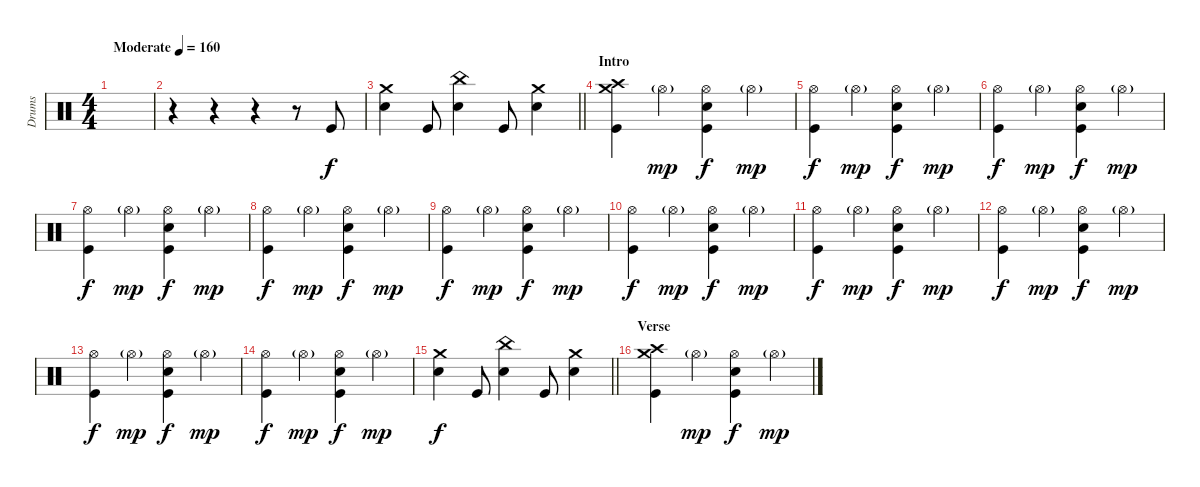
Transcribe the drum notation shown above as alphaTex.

\track ("Drums" "Drums") {instrument percussion}
\staff {score}
\articulation defaults
\ts (4 4)
\tempo (160 "Moderate")
\clef neutral
\ks c
|
r.4 r.4 r.4 r.8 "Kick (hit)".8 |
\barLineRight lightlight
("Electric Snare (hit)" "Crash medium (hit)").4 "Kick (hit)".8 ("Electric Snare (hit)" "China (hit)").4 "Kick (hit)".8 ("Electric Snare (hit)" "Crash medium (hit)").4 |
\section ("" "Intro")
("Kick (hit)" "Crash high (hit)" "Crash medium (hit)").4 "Hi-Hat (open)"{g}.4{dy mp} ("Kick (hit)" "Electric Snare (hit)" "Hi-Hat (open)").4{dy f} "Hi-Hat (open)"{g}.4{dy mp} |
("Kick (hit)" "Hi-Hat (open)").4{dy f} "Hi-Hat (open)"{g}.4{dy mp} ("Kick (hit)" "Electric Snare (hit)" "Hi-Hat (open)").4{dy f} "Hi-Hat (open)"{g}.4{dy mp} |
("Kick (hit)" "Hi-Hat (open)").4{dy f} "Hi-Hat (open)"{g}.4{dy mp} ("Kick (hit)" "Electric Snare (hit)" "Hi-Hat (open)").4{dy f} "Hi-Hat (open)"{g}.4{dy mp} |
("Kick (hit)" "Hi-Hat (open)").4{dy f} "Hi-Hat (open)"{g}.4{dy mp} ("Kick (hit)" "Electric Snare (hit)" "Hi-Hat (open)").4{dy f} "Hi-Hat (open)"{g}.4{dy mp} |
("Kick (hit)" "Hi-Hat (open)").4{dy f} "Hi-Hat (open)"{g}.4{dy mp} ("Kick (hit)" "Electric Snare (hit)" "Hi-Hat (open)").4{dy f} "Hi-Hat (open)"{g}.4{dy mp} |
("Kick (hit)" "Hi-Hat (open)").4{dy f} "Hi-Hat (open)"{g}.4{dy mp} ("Kick (hit)" "Electric Snare (hit)" "Hi-Hat (open)").4{dy f} "Hi-Hat (open)"{g}.4{dy mp} |
("Kick (hit)" "Hi-Hat (open)").4{dy f} "Hi-Hat (open)"{g}.4{dy mp} ("Kick (hit)" "Electric Snare (hit)" "Hi-Hat (open)").4{dy f} "Hi-Hat (open)"{g}.4{dy mp} |
("Kick (hit)" "Hi-Hat (open)").4{dy f} "Hi-Hat (open)"{g}.4{dy mp} ("Kick (hit)" "Electric Snare (hit)" "Hi-Hat (open)").4{dy f} "Hi-Hat (open)"{g}.4{dy mp} |
("Kick (hit)" "Hi-Hat (open)").4{dy f} "Hi-Hat (open)"{g}.4{dy mp} ("Kick (hit)" "Electric Snare (hit)" "Hi-Hat (open)").4{dy f} "Hi-Hat (open)"{g}.4{dy mp} |
("Kick (hit)" "Hi-Hat (open)").4{dy f} "Hi-Hat (open)"{g}.4{dy mp} ("Kick (hit)" "Electric Snare (hit)" "Hi-Hat (open)").4{dy f} "Hi-Hat (open)"{g}.4{dy mp} |
("Kick (hit)" "Hi-Hat (open)").4{dy f} "Hi-Hat (open)"{g}.4{dy mp} ("Kick (hit)" "Electric Snare (hit)" "Hi-Hat (open)").4{dy f} "Hi-Hat (open)"{g}.4{dy mp} |
\barLineRight lightlight
("Electric Snare (hit)" "Crash medium (hit)").4{dy f} "Kick (hit)".8 ("Electric Snare (hit)" "China (hit)").4 "Kick (hit)".8 ("Electric Snare (hit)" "Crash medium (hit)").4 |
\section ("" "Verse")
("Kick (hit)" "Crash high (hit)" "Crash medium (hit)").4 "Hi-Hat (open)"{g}.4{dy mp} ("Kick (hit)" "Electric Snare (hit)" "Hi-Hat (open)").4{dy f} "Hi-Hat (open)"{g}.4{dy mp}
